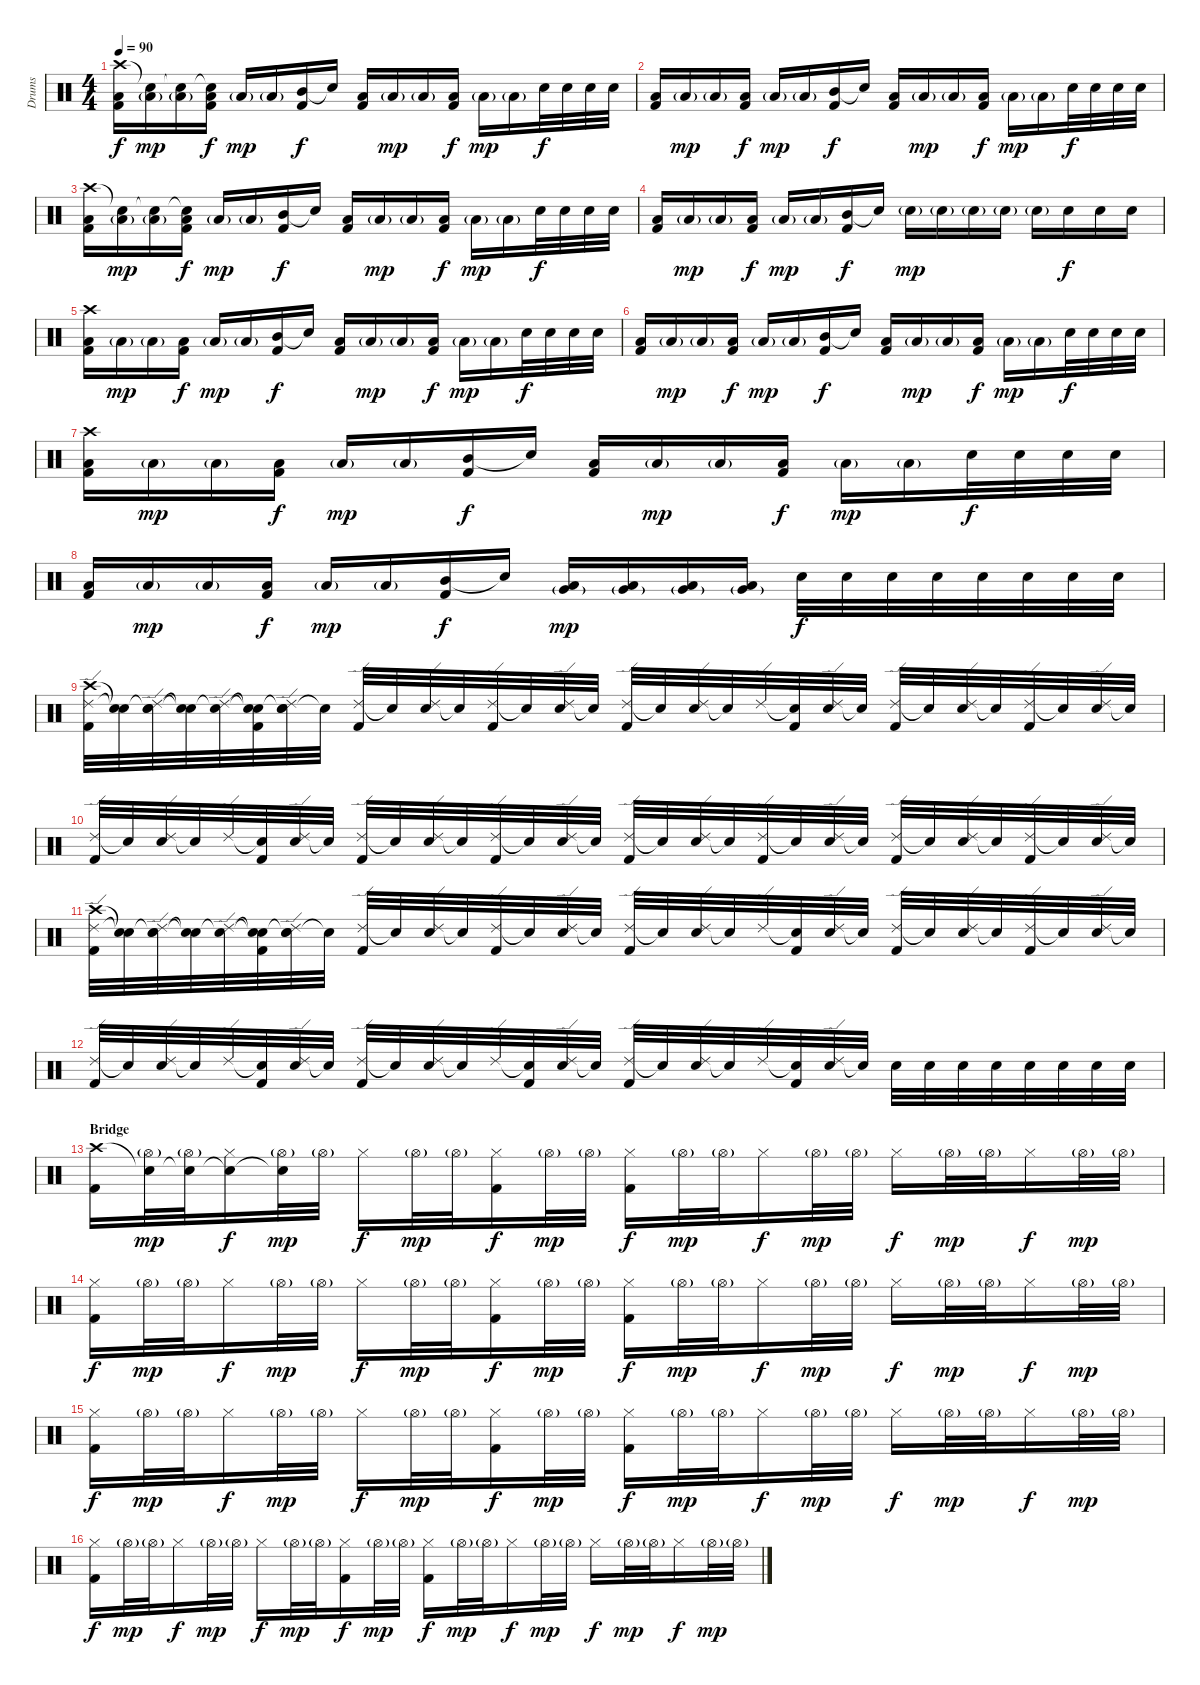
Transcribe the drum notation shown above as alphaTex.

\track ("Drums" "Drums") {instrument percussion}
\staff {score}
\articulation defaults
\ts (4 4)
\tempo 90
\clef neutral
\ks c
("Crash high (hit)" "Low Tom (hit)" "Kick (hit) 2").16{dy f} ("Snare (hit)"{t} "Low Tom (hit)"{g}).16{dy mp} ("Snare (hit)"{t} "Low Tom (hit)"{g}).16 ("Snare (hit)"{t} "Low Tom (hit)" "Kick (hit) 2").16{dy f} "Low Tom (hit)"{g}.16{dy mp} "Low Tom (hit)"{g}.16 ("Mid Tom (hit)" "Kick (hit) 2").16{dy f} "Snare (hit)"{t}.16 ("Low Tom (hit)" "Kick (hit) 2").16 "Low Tom (hit)"{g}.16{dy mp} "Low Tom (hit)"{g}.16 ("Low Tom (hit)" "Kick (hit) 2").16{dy f} "Low Tom (hit)"{g}.16{dy mp} "Low Tom (hit)"{g}.16 "Electric Snare (hit)".32{dy f} "Electric Snare (hit)".32 "Electric Snare (hit)".32 "Electric Snare (hit)".32 |
("Low Tom (hit)" "Kick (hit) 2").16 "Low Tom (hit)"{g}.16{dy mp} "Low Tom (hit)"{g}.16 ("Low Tom (hit)" "Kick (hit) 2").16{dy f} "Low Tom (hit)"{g}.16{dy mp} "Low Tom (hit)"{g}.16 ("Mid Tom (hit)" "Kick (hit) 2").16{dy f} "Snare (hit)"{t}.16 ("Low Tom (hit)" "Kick (hit) 2").16 "Low Tom (hit)"{g}.16{dy mp} "Low Tom (hit)"{g}.16 ("Low Tom (hit)" "Kick (hit) 2").16{dy f} "Low Tom (hit)"{g}.16{dy mp} "Low Tom (hit)"{g}.16 "Electric Snare (hit)".32{dy f} "Electric Snare (hit)".32 "Electric Snare (hit)".32 "Electric Snare (hit)".32 |
("Crash high (hit)" "Low Tom (hit)" "Kick (hit) 2").16 ("Snare (hit)"{t} "Low Tom (hit)"{g}).16{dy mp} ("Snare (hit)"{t} "Low Tom (hit)"{g}).16 ("Snare (hit)"{t} "Low Tom (hit)" "Kick (hit) 2").16{dy f} "Low Tom (hit)"{g}.16{dy mp} "Low Tom (hit)"{g}.16 ("Mid Tom (hit)" "Kick (hit) 2").16{dy f} "Snare (hit)"{t}.16 ("Low Tom (hit)" "Kick (hit) 2").16 "Low Tom (hit)"{g}.16{dy mp} "Low Tom (hit)"{g}.16 ("Low Tom (hit)" "Kick (hit) 2").16{dy f} "Low Tom (hit)"{g}.16{dy mp} "Low Tom (hit)"{g}.16 "Electric Snare (hit)".32{dy f} "Electric Snare (hit)".32 "Electric Snare (hit)".32 "Electric Snare (hit)".32 |
("Low Tom (hit)" "Kick (hit) 2").16 "Low Tom (hit)"{g}.16{dy mp} "Low Tom (hit)"{g}.16 ("Low Tom (hit)" "Kick (hit) 2").16{dy f} "Low Tom (hit)"{g}.16{dy mp} "Low Tom (hit)"{g}.16 ("Mid Tom (hit)" "Kick (hit) 2").16{dy f} "Snare (hit)"{t}.16 "Electric Snare (hit)"{g}.16{dy mp} "Electric Snare (hit)"{g}.16 "Electric Snare (hit)"{g}.16 "Electric Snare (hit)"{g}.16 "Electric Snare (hit)"{g}.16 "Electric Snare (hit)".16{dy f} "Electric Snare (hit)".16 "Electric Snare (hit)".16 |
("Crash high (hit)" "Low Tom (hit)" "Kick (hit) 2").16 "Low Tom (hit)"{g}.16{dy mp} "Low Tom (hit)"{g}.16 ("Low Tom (hit)" "Kick (hit) 2").16{dy f} "Low Tom (hit)"{g}.16{dy mp} "Low Tom (hit)"{g}.16 ("Mid Tom (hit)" "Kick (hit) 2").16{dy f} "Snare (hit)"{t}.16 ("Low Tom (hit)" "Kick (hit) 2").16 "Low Tom (hit)"{g}.16{dy mp} "Low Tom (hit)"{g}.16 ("Low Tom (hit)" "Kick (hit) 2").16{dy f} "Low Tom (hit)"{g}.16{dy mp} "Low Tom (hit)"{g}.16 "Electric Snare (hit)".32{dy f} "Electric Snare (hit)".32 "Electric Snare (hit)".32 "Electric Snare (hit)".32 |
("Low Tom (hit)" "Kick (hit) 2").16 "Low Tom (hit)"{g}.16{dy mp} "Low Tom (hit)"{g}.16 ("Low Tom (hit)" "Kick (hit) 2").16{dy f} "Low Tom (hit)"{g}.16{dy mp} "Low Tom (hit)"{g}.16 ("Mid Tom (hit)" "Kick (hit) 2").16{dy f} "Snare (hit)"{t}.16 ("Low Tom (hit)" "Kick (hit) 2").16 "Low Tom (hit)"{g}.16{dy mp} "Low Tom (hit)"{g}.16 ("Low Tom (hit)" "Kick (hit) 2").16{dy f} "Low Tom (hit)"{g}.16{dy mp} "Low Tom (hit)"{g}.16 "Electric Snare (hit)".32{dy f} "Electric Snare (hit)".32 "Electric Snare (hit)".32 "Electric Snare (hit)".32 |
("Crash high (hit)" "Low Tom (hit)" "Kick (hit) 2").16 "Low Tom (hit)"{g}.16{dy mp} "Low Tom (hit)"{g}.16 ("Low Tom (hit)" "Kick (hit) 2").16{dy f} "Low Tom (hit)"{g}.16{dy mp} "Low Tom (hit)"{g}.16 ("Mid Tom (hit)" "Kick (hit) 2").16{dy f} "Snare (hit)"{t}.16 ("Low Tom (hit)" "Kick (hit) 2").16 "Low Tom (hit)"{g}.16{dy mp} "Low Tom (hit)"{g}.16 ("Low Tom (hit)" "Kick (hit) 2").16{dy f} "Low Tom (hit)"{g}.16{dy mp} "Low Tom (hit)"{g}.16 "Electric Snare (hit)".32{dy f} "Electric Snare (hit)".32 "Electric Snare (hit)".32 "Electric Snare (hit)".32 |
("Low Tom (hit)" "Kick (hit) 2").16 "Low Tom (hit)"{g}.16{dy mp} "Low Tom (hit)"{g}.16 ("Low Tom (hit)" "Kick (hit) 2").16{dy f} "Low Tom (hit)"{g}.16{dy mp} "Low Tom (hit)"{g}.16 ("Mid Tom (hit)" "Kick (hit) 2").16{dy f} "Snare (hit)"{t}.16 ("Very Low Tom (hit)"{g} "Low Tom (hit)").16{dy mp} ("Very Low Tom (hit)"{g} "Low Tom (hit)").16 ("Very Low Tom (hit)"{g} "Low Tom (hit)").16 ("Very Low Tom (hit)"{g} "Low Tom (hit)").16 "Electric Snare (hit)".32{dy f} "Electric Snare (hit)".32 "Electric Snare (hit)".32 "Electric Snare (hit)".32 "Electric Snare (hit)".32 "Electric Snare (hit)".32 "Electric Snare (hit)".32 "Electric Snare (hit)".32 |
("Crash high (hit)" "Ride (edge) 2" "Kick (hit) 2").32 ("Snare (hit)"{t} "Snare (hit)"{t}).32 ("Snare (hit)"{t} "Ride (edge) 2" "Electric Snare (hit)").32 ("Snare (hit)"{t} "Snare (hit)"{t}).32 ("Snare (hit)"{t} "Ride (edge) 2").32 ("Snare (hit)"{t} "Snare (hit)"{t} "Kick (hit) 2").32 ("Snare (hit)"{t} "Ride (edge) 2" "Electric Snare (hit)").32 "Snare (hit)"{t}.32 ("Ride (edge) 2" "Kick (hit) 2").32 "Snare (hit)"{t}.32 ("Ride (edge) 2" "Electric Snare (hit)").32 "Snare (hit)"{t}.32 ("Ride (edge) 2" "Kick (hit) 2").32 "Snare (hit)"{t}.32 ("Ride (edge) 2" "Electric Snare (hit)").32 "Snare (hit)"{t}.32 ("Ride (edge) 2" "Kick (hit) 2").32 "Snare (hit)"{t}.32 ("Ride (edge) 2" "Electric Snare (hit)").32 "Snare (hit)"{t}.32 "Ride (edge) 2".32 ("Snare (hit)"{t} "Kick (hit) 2").32 ("Ride (edge) 2" "Electric Snare (hit)").32 "Snare (hit)"{t}.32 ("Ride (edge) 2" "Kick (hit) 2").32 "Snare (hit)"{t}.32 ("Ride (edge) 2" "Electric Snare (hit)").32 "Snare (hit)"{t}.32 ("Ride (edge) 2" "Kick (hit) 2").32 "Snare (hit)"{t}.32 ("Ride (edge) 2" "Electric Snare (hit)").32 "Snare (hit)"{t}.32 |
("Ride (edge) 2" "Kick (hit) 2").32 "Snare (hit)"{t}.32 ("Ride (edge) 2" "Electric Snare (hit)").32 "Snare (hit)"{t}.32 "Ride (edge) 2".32 ("Snare (hit)"{t} "Kick (hit) 2").32 ("Ride (edge) 2" "Electric Snare (hit)").32 "Snare (hit)"{t}.32 ("Ride (edge) 2" "Kick (hit) 2").32 "Snare (hit)"{t}.32 ("Ride (edge) 2" "Electric Snare (hit)").32 "Snare (hit)"{t}.32 ("Ride (edge) 2" "Kick (hit) 2").32 "Snare (hit)"{t}.32 ("Ride (edge) 2" "Electric Snare (hit)").32 "Snare (hit)"{t}.32 ("Ride (edge) 2" "Kick (hit) 2").32 "Snare (hit)"{t}.32 ("Ride (edge) 2" "Electric Snare (hit)").32 "Snare (hit)"{t}.32 ("Ride (edge) 2" "Kick (hit) 2").32 "Snare (hit)"{t}.32 ("Ride (edge) 2" "Electric Snare (hit)").32 "Snare (hit)"{t}.32 ("Ride (edge) 2" "Kick (hit) 2").32 "Snare (hit)"{t}.32 ("Ride (edge) 2" "Electric Snare (hit)").32 "Snare (hit)"{t}.32 ("Ride (edge) 2" "Kick (hit) 2").32 "Snare (hit)"{t}.32 ("Ride (edge) 2" "Electric Snare (hit)").32 "Snare (hit)"{t}.32 |
("Crash high (hit)" "Ride (edge) 2" "Kick (hit) 2").32 ("Snare (hit)"{t} "Snare (hit)"{t}).32 ("Snare (hit)"{t} "Ride (edge) 2" "Electric Snare (hit)").32 ("Snare (hit)"{t} "Snare (hit)"{t}).32 ("Snare (hit)"{t} "Ride (edge) 2").32 ("Snare (hit)"{t} "Snare (hit)"{t} "Kick (hit) 2").32 ("Snare (hit)"{t} "Ride (edge) 2" "Electric Snare (hit)").32 "Snare (hit)"{t}.32 ("Ride (edge) 2" "Kick (hit) 2").32 "Snare (hit)"{t}.32 ("Ride (edge) 2" "Electric Snare (hit)").32 "Snare (hit)"{t}.32 ("Ride (edge) 2" "Kick (hit) 2").32 "Snare (hit)"{t}.32 ("Ride (edge) 2" "Electric Snare (hit)").32 "Snare (hit)"{t}.32 ("Ride (edge) 2" "Kick (hit) 2").32 "Snare (hit)"{t}.32 ("Ride (edge) 2" "Electric Snare (hit)").32 "Snare (hit)"{t}.32 "Ride (edge) 2".32 ("Snare (hit)"{t} "Kick (hit) 2").32 ("Ride (edge) 2" "Electric Snare (hit)").32 "Snare (hit)"{t}.32 ("Ride (edge) 2" "Kick (hit) 2").32 "Snare (hit)"{t}.32 ("Ride (edge) 2" "Electric Snare (hit)").32 "Snare (hit)"{t}.32 ("Ride (edge) 2" "Kick (hit) 2").32 "Snare (hit)"{t}.32 ("Ride (edge) 2" "Electric Snare (hit)").32 "Snare (hit)"{t}.32 |
("Ride (edge) 2" "Kick (hit) 2").32 "Snare (hit)"{t}.32 ("Ride (edge) 2" "Electric Snare (hit)").32 "Snare (hit)"{t}.32 "Ride (edge) 2".32 ("Snare (hit)"{t} "Kick (hit) 2").32 ("Ride (edge) 2" "Electric Snare (hit)").32 "Snare (hit)"{t}.32 ("Ride (edge) 2" "Kick (hit) 2").32 "Snare (hit)"{t}.32 ("Ride (edge) 2" "Electric Snare (hit)").32 "Snare (hit)"{t}.32 "Ride (edge) 2".32 ("Snare (hit)"{t} "Kick (hit) 2").32 ("Ride (edge) 2" "Electric Snare (hit)").32 "Snare (hit)"{t}.32 ("Ride (edge) 2" "Kick (hit) 2").32 "Snare (hit)"{t}.32 ("Ride (edge) 2" "Electric Snare (hit)").32 "Snare (hit)"{t}.32 "Ride (edge) 2".32 ("Snare (hit)"{t} "Kick (hit) 2").32 ("Ride (edge) 2" "Electric Snare (hit)").32 "Snare (hit)"{t}.32 "Electric Snare (hit)".32 "Electric Snare (hit)".32 "Electric Snare (hit)".32 "Electric Snare (hit)".32 "Electric Snare (hit)".32 "Electric Snare (hit)".32 "Electric Snare (hit)".32 "Electric Snare (hit)".32 |
\section ("" "Bridge")
("Crash high (hit)" "Kick (hit) 2").16 ("Snare (hit)"{t} "Hi-Hat (open)"{g}).32{dy mp} ("Snare (hit)"{t} "Hi-Hat (open)"{g}).32 ("Snare (hit)"{t} "Hi-Hat (closed)").16{dy f} ("Snare (hit)"{t} "Hi-Hat (open)"{g}).32{dy mp} "Hi-Hat (open)"{g}.32 "Hi-Hat (closed)".16{dy f} "Hi-Hat (open)"{g}.32{dy mp} "Hi-Hat (open)"{g}.32 ("Hi-Hat (closed)" "Kick (hit) 2").16{dy f} "Hi-Hat (open)"{g}.32{dy mp} "Hi-Hat (open)"{g}.32 ("Hi-Hat (closed)" "Kick (hit) 2").16{dy f} "Hi-Hat (open)"{g}.32{dy mp} "Hi-Hat (open)"{g}.32 "Hi-Hat (closed)".16{dy f} "Hi-Hat (open)"{g}.32{dy mp} "Hi-Hat (open)"{g}.32 "Hi-Hat (closed)".16{dy f} "Hi-Hat (open)"{g}.32{dy mp} "Hi-Hat (open)"{g}.32 "Hi-Hat (closed)".16{dy f} "Hi-Hat (open)"{g}.32{dy mp} "Hi-Hat (open)"{g}.32 |
("Hi-Hat (closed)" "Kick (hit) 2").16{dy f} "Hi-Hat (open)"{g}.32{dy mp} "Hi-Hat (open)"{g}.32 "Hi-Hat (closed)".16{dy f} "Hi-Hat (open)"{g}.32{dy mp} "Hi-Hat (open)"{g}.32 "Hi-Hat (closed)".16{dy f} "Hi-Hat (open)"{g}.32{dy mp} "Hi-Hat (open)"{g}.32 ("Hi-Hat (closed)" "Kick (hit) 2").16{dy f} "Hi-Hat (open)"{g}.32{dy mp} "Hi-Hat (open)"{g}.32 ("Hi-Hat (closed)" "Kick (hit) 2").16{dy f} "Hi-Hat (open)"{g}.32{dy mp} "Hi-Hat (open)"{g}.32 "Hi-Hat (closed)".16{dy f} "Hi-Hat (open)"{g}.32{dy mp} "Hi-Hat (open)"{g}.32 "Hi-Hat (closed)".16{dy f} "Hi-Hat (open)"{g}.32{dy mp} "Hi-Hat (open)"{g}.32 "Hi-Hat (closed)".16{dy f} "Hi-Hat (open)"{g}.32{dy mp} "Hi-Hat (open)"{g}.32 |
("Hi-Hat (closed)" "Kick (hit) 2").16{dy f} "Hi-Hat (open)"{g}.32{dy mp} "Hi-Hat (open)"{g}.32 "Hi-Hat (closed)".16{dy f} "Hi-Hat (open)"{g}.32{dy mp} "Hi-Hat (open)"{g}.32 "Hi-Hat (closed)".16{dy f} "Hi-Hat (open)"{g}.32{dy mp} "Hi-Hat (open)"{g}.32 ("Hi-Hat (closed)" "Kick (hit) 2").16{dy f} "Hi-Hat (open)"{g}.32{dy mp} "Hi-Hat (open)"{g}.32 ("Hi-Hat (closed)" "Kick (hit) 2").16{dy f} "Hi-Hat (open)"{g}.32{dy mp} "Hi-Hat (open)"{g}.32 "Hi-Hat (closed)".16{dy f} "Hi-Hat (open)"{g}.32{dy mp} "Hi-Hat (open)"{g}.32 "Hi-Hat (closed)".16{dy f} "Hi-Hat (open)"{g}.32{dy mp} "Hi-Hat (open)"{g}.32 "Hi-Hat (closed)".16{dy f} "Hi-Hat (open)"{g}.32{dy mp} "Hi-Hat (open)"{g}.32 |
("Hi-Hat (closed)" "Kick (hit) 2").16{dy f} "Hi-Hat (open)"{g}.32{dy mp} "Hi-Hat (open)"{g}.32 "Hi-Hat (closed)".16{dy f} "Hi-Hat (open)"{g}.32{dy mp} "Hi-Hat (open)"{g}.32 "Hi-Hat (closed)".16{dy f} "Hi-Hat (open)"{g}.32{dy mp} "Hi-Hat (open)"{g}.32 ("Hi-Hat (closed)" "Kick (hit) 2").16{dy f} "Hi-Hat (open)"{g}.32{dy mp} "Hi-Hat (open)"{g}.32 ("Hi-Hat (closed)" "Kick (hit) 2").16{dy f} "Hi-Hat (open)"{g}.32{dy mp} "Hi-Hat (open)"{g}.32 "Hi-Hat (closed)".16{dy f} "Hi-Hat (open)"{g}.32{dy mp} "Hi-Hat (open)"{g}.32 "Hi-Hat (closed)".16{dy f} "Hi-Hat (open)"{g}.32{dy mp} "Hi-Hat (open)"{g}.32 "Hi-Hat (closed)".16{dy f} "Hi-Hat (open)"{g}.32{dy mp} "Hi-Hat (open)"{g}.32
